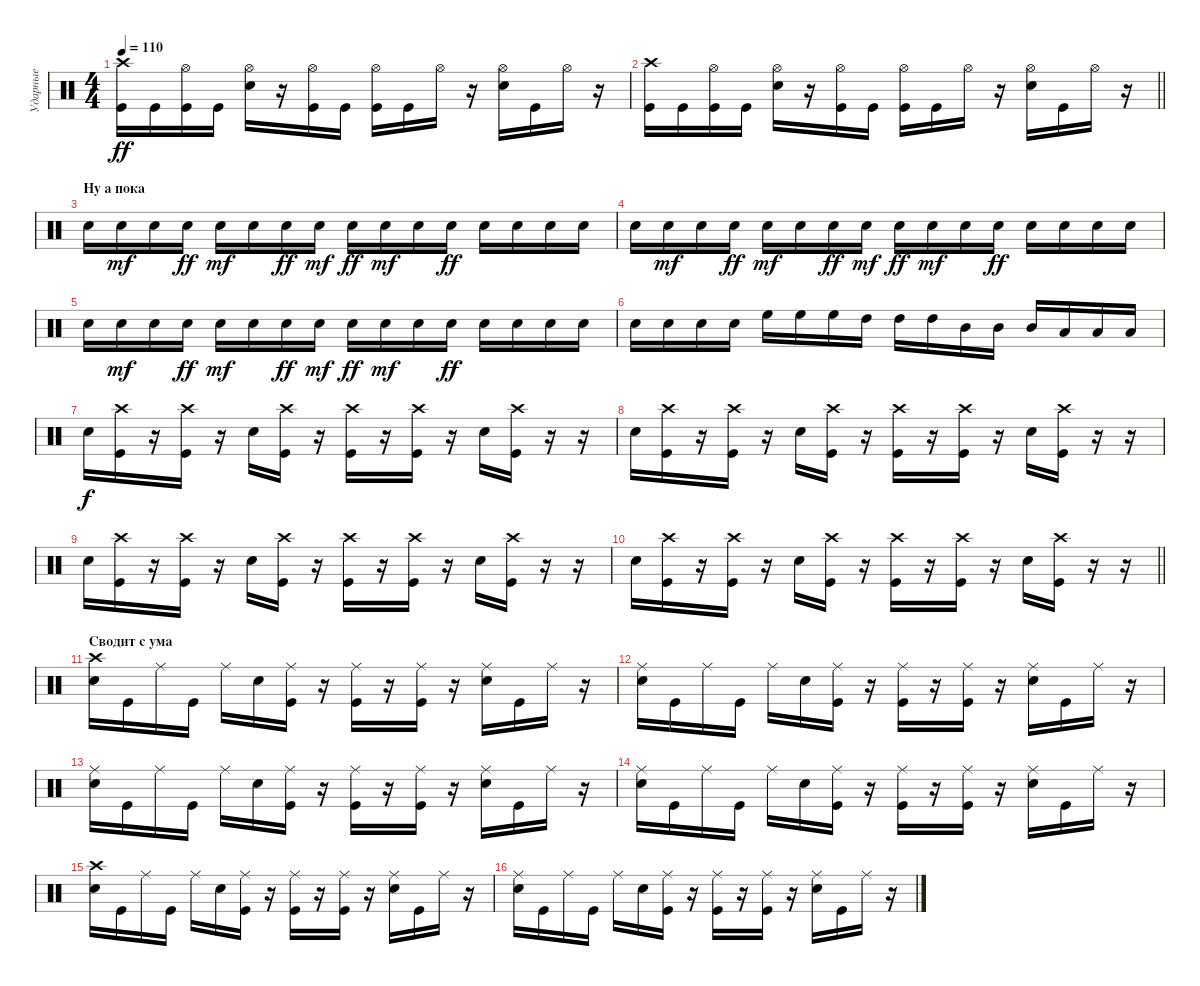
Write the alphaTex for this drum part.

\track ("Ударные" "Ударные") {instrument percussion}
\staff {score}
\articulation defaults
\ts (4 4)
\tempo 110
\clef neutral
\ks c
("Kick (hit)" "Crash high (hit)").16{dy ff} "Kick (hit)".16 ("Kick (hit)" "Hi-Hat (open)").16 "Kick (hit)".16 ("Snare (hit) 2" "Hi-Hat (open)").16 r.16 ("Kick (hit)" "Hi-Hat (open)").16 "Kick (hit)".16 ("Kick (hit)" "Hi-Hat (open)").16 "Kick (hit)".16 "Hi-Hat (open)".16 r.16 ("Snare (hit) 2" "Hi-Hat (open)").16 "Kick (hit)".16 "Hi-Hat (open)".16 r.16 |
\barLineRight lightlight
("Kick (hit)" "Crash high (hit)").16 "Kick (hit)".16 ("Kick (hit)" "Hi-Hat (open)").16 "Kick (hit)".16 ("Snare (hit) 2" "Hi-Hat (open)").16 r.16 ("Kick (hit)" "Hi-Hat (open)").16 "Kick (hit)".16 ("Kick (hit)" "Hi-Hat (open)").16 "Kick (hit)".16 "Hi-Hat (open)".16 r.16 ("Snare (hit) 2" "Hi-Hat (open)").16 "Kick (hit)".16 "Hi-Hat (open)".16 r.16 |
\section ("" "Ну а пока")
"Snare (hit) 2".16 "Snare (hit) 2".16{dy mf} "Snare (hit) 2".16 "Snare (hit) 2".16{dy ff} "Snare (hit) 2".16{dy mf} "Snare (hit) 2".16 "Snare (hit) 2".16{dy ff} "Snare (hit) 2".16{dy mf} "Snare (hit) 2".16{dy ff} "Snare (hit) 2".16{dy mf} "Snare (hit) 2".16 "Snare (hit) 2".16{dy ff} "Snare (hit) 2".16 "Snare (hit) 2".16 "Snare (hit) 2".16 "Snare (hit) 2".16 |
"Snare (hit) 2".16 "Snare (hit) 2".16{dy mf} "Snare (hit) 2".16 "Snare (hit) 2".16{dy ff} "Snare (hit) 2".16{dy mf} "Snare (hit) 2".16 "Snare (hit) 2".16{dy ff} "Snare (hit) 2".16{dy mf} "Snare (hit) 2".16{dy ff} "Snare (hit) 2".16{dy mf} "Snare (hit) 2".16 "Snare (hit) 2".16{dy ff} "Snare (hit) 2".16 "Snare (hit) 2".16 "Snare (hit) 2".16 "Snare (hit) 2".16 |
"Snare (hit) 2".16 "Snare (hit) 2".16{dy mf} "Snare (hit) 2".16 "Snare (hit) 2".16{dy ff} "Snare (hit) 2".16{dy mf} "Snare (hit) 2".16 "Snare (hit) 2".16{dy ff} "Snare (hit) 2".16{dy mf} "Snare (hit) 2".16{dy ff} "Snare (hit) 2".16{dy mf} "Snare (hit) 2".16 "Snare (hit) 2".16{dy ff} "Snare (hit) 2".16 "Snare (hit) 2".16 "Snare (hit) 2".16 "Snare (hit) 2".16 |
"Snare (hit) 2".16 "Snare (hit) 2".16 "Snare (hit) 2".16 "Snare (hit) 2".16 "High Floor Tom (hit)".16 "High Floor Tom (hit)".16 "High Floor Tom (hit)".16 "High Tom (hit)".16 "High Tom (hit)".16 "High Tom (hit)".16 "Mid Tom (hit)".16 "Mid Tom (hit)".16 "Mid Tom (hit)".16 "Low Tom (hit)".16 "Low Tom (hit)".16 "Low Tom (hit)".16 |
"Snare (hit) 2".16{dy f} ("Kick (hit)" "Crash high (hit)").16 r.16 ("Kick (hit)" "Crash high (hit)").16 r.16 "Snare (hit) 2".16 ("Kick (hit)" "Crash high (hit)").16 r.16 ("Kick (hit)" "Crash high (hit)").16 r.16 ("Kick (hit)" "Crash high (hit)").16 r.16 "Snare (hit) 2".16 ("Kick (hit)" "Crash high (hit)").16 r.16 r.16 |
"Snare (hit) 2".16 ("Kick (hit)" "Crash high (hit)").16 r.16 ("Kick (hit)" "Crash high (hit)").16 r.16 "Snare (hit) 2".16 ("Kick (hit)" "Crash high (hit)").16 r.16 ("Kick (hit)" "Crash high (hit)").16 r.16 ("Kick (hit)" "Crash high (hit)").16 r.16 "Snare (hit) 2".16 ("Kick (hit)" "Crash high (hit)").16 r.16 r.16 |
"Snare (hit) 2".16 ("Kick (hit)" "Crash high (hit)").16 r.16 ("Kick (hit)" "Crash high (hit)").16 r.16 "Snare (hit) 2".16 ("Kick (hit)" "Crash high (hit)").16 r.16 ("Kick (hit)" "Crash high (hit)").16 r.16 ("Kick (hit)" "Crash high (hit)").16 r.16 "Snare (hit) 2".16 ("Kick (hit)" "Crash high (hit)").16 r.16 r.16 |
\barLineRight lightlight "Snare (hit) 2".16
("Kick (hit)" "Crash high (hit)").16 r.16 ("Kick (hit)" "Crash high (hit)").16 r.16 "Snare (hit) 2".16 ("Kick (hit)" "Crash high (hit)").16 r.16 ("Kick (hit)" "Crash high (hit)").16 r.16 ("Kick (hit)" "Crash high (hit)").16 r.16 "Snare (hit) 2".16 ("Kick (hit)" "Crash high (hit)").16 r.16 r.16 |
\section ("" "Сводит с ума")
("Snare (hit) 2" "Crash high (hit)").16 "Kick (hit)".16 "Ride (middle)".16 "Kick (hit)".16 "Ride (middle)".16 "Snare (hit) 2".16 ("Kick (hit)" "Ride (middle)").16 r.16 ("Kick (hit)" "Ride (middle)").16 r.16 ("Kick (hit)" "Ride (middle)").16 r.16 ("Snare (hit) 2" "Ride (middle)").16 "Kick (hit)".16 "Ride (middle)".16 r.16 |
("Snare (hit) 2" "Ride (middle)").16 "Kick (hit)".16 "Ride (middle)".16 "Kick (hit)".16 "Ride (middle)".16 "Snare (hit) 2".16 ("Kick (hit)" "Ride (middle)").16 r.16 ("Kick (hit)" "Ride (middle)").16 r.16 ("Kick (hit)" "Ride (middle)").16 r.16 ("Snare (hit) 2" "Ride (middle)").16 "Kick (hit)".16 "Ride (middle)".16 r.16 |
("Snare (hit) 2" "Ride (middle)").16 "Kick (hit)".16 "Ride (middle)".16 "Kick (hit)".16 "Ride (middle)".16 "Snare (hit) 2".16 ("Kick (hit)" "Ride (middle)").16 r.16 ("Kick (hit)" "Ride (middle)").16 r.16 ("Kick (hit)" "Ride (middle)").16 r.16 ("Snare (hit) 2" "Ride (middle)").16 "Kick (hit)".16 "Ride (middle)".16 r.16 |
("Snare (hit) 2" "Ride (middle)").16 "Kick (hit)".16 "Ride (middle)".16 "Kick (hit)".16 "Ride (middle)".16 "Snare (hit) 2".16 ("Kick (hit)" "Ride (middle)").16 r.16 ("Kick (hit)" "Ride (middle)").16 r.16 ("Kick (hit)" "Ride (middle)").16 r.16 ("Snare (hit) 2" "Ride (middle)").16 "Kick (hit)".16 "Ride (middle)".16 r.16 |
("Snare (hit) 2" "Crash high (hit)").16 "Kick (hit)".16 "Ride (middle)".16 "Kick (hit)".16 "Ride (middle)".16 "Snare (hit) 2".16 ("Kick (hit)" "Ride (middle)").16 r.16 ("Kick (hit)" "Ride (middle)").16 r.16 ("Kick (hit)" "Ride (middle)").16 r.16 ("Snare (hit) 2" "Ride (middle)").16 "Kick (hit)".16 "Ride (middle)".16 r.16 |
("Snare (hit) 2" "Ride (middle)").16 "Kick (hit)".16 "Ride (middle)".16 "Kick (hit)".16 "Ride (middle)".16 "Snare (hit) 2".16 ("Kick (hit)" "Ride (middle)").16 r.16 ("Kick (hit)" "Ride (middle)").16 r.16 ("Kick (hit)" "Ride (middle)").16 r.16 ("Snare (hit) 2" "Ride (middle)").16 "Kick (hit)".16 "Ride (middle)".16 r.16
